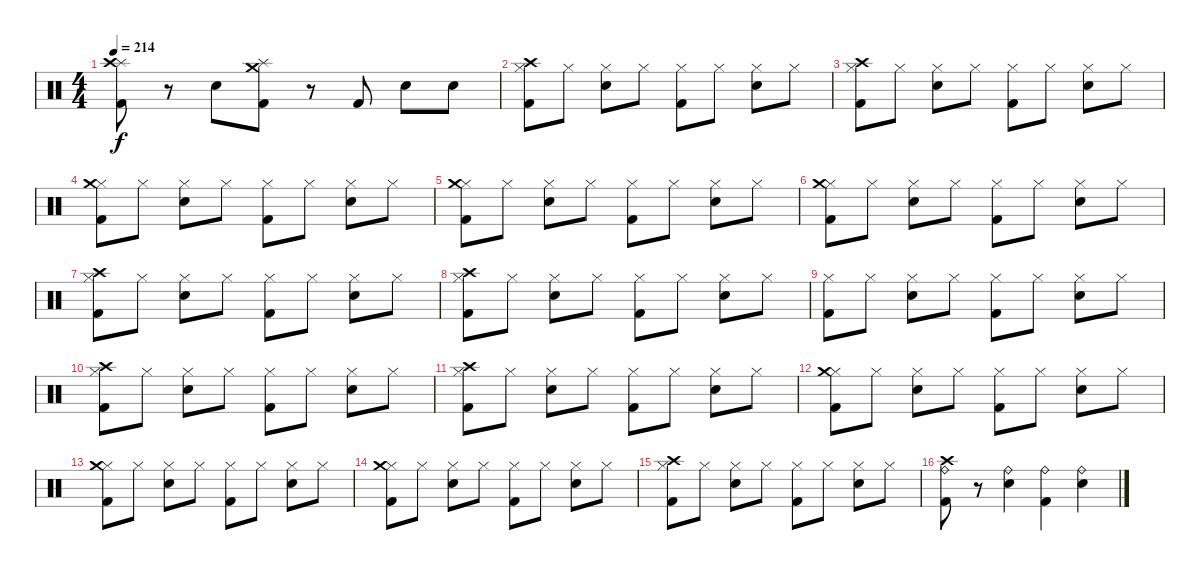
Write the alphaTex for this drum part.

\track "" {instrument percussion}
\staff {score}
\articulation defaults
\ts (4 4)
\tempo 214
\clef neutral
\ks c
("Splash (hit)" "Crash high (hit)" "Kick (hit) 2").8{dy f} r.8 "Electric Snare (hit)".8 ("Splash (hit)" "Crash medium (hit)" "Kick (hit) 2").8 r.8 "Kick (hit) 2".8 "Electric Snare (hit)".8 "Electric Snare (hit)".8 |
("Hi-Hat (closed)" "Crash high (hit)" "Kick (hit) 2").8 "Hi-Hat (closed)".8 ("Hi-Hat (closed)" "Electric Snare (hit)").8 "Hi-Hat (closed)".8 ("Hi-Hat (closed)" "Kick (hit) 2").8 "Hi-Hat (closed)".8 ("Hi-Hat (closed)" "Electric Snare (hit)").8 "Hi-Hat (closed)".8 |
("Hi-Hat (closed)" "Crash high (hit)" "Kick (hit) 2").8 "Hi-Hat (closed)".8 ("Hi-Hat (closed)" "Electric Snare (hit)").8 "Hi-Hat (closed)".8 ("Hi-Hat (closed)" "Kick (hit) 2").8 "Hi-Hat (closed)".8 ("Hi-Hat (closed)" "Electric Snare (hit)").8 "Hi-Hat (closed)".8 |
("Hi-Hat (closed)" "Crash medium (hit)" "Kick (hit) 2").8 "Hi-Hat (closed)".8 ("Hi-Hat (closed)" "Electric Snare (hit)").8 "Hi-Hat (closed)".8 ("Hi-Hat (closed)" "Kick (hit) 2").8 "Hi-Hat (closed)".8 ("Hi-Hat (closed)" "Electric Snare (hit)").8 "Hi-Hat (closed)".8 |
("Hi-Hat (closed)" "Crash medium (hit)" "Kick (hit) 2").8 "Hi-Hat (closed)".8 ("Hi-Hat (closed)" "Electric Snare (hit)").8 "Hi-Hat (closed)".8 ("Hi-Hat (closed)" "Kick (hit) 2").8 "Hi-Hat (closed)".8 ("Hi-Hat (closed)" "Electric Snare (hit)").8 "Hi-Hat (closed)".8 |
("Hi-Hat (closed)" "Kick (hit) 2" "Crash medium (hit)").8 "Hi-Hat (closed)".8 ("Hi-Hat (closed)" "Electric Snare (hit)").8 "Hi-Hat (closed)".8 ("Hi-Hat (closed)" "Kick (hit) 2").8 "Hi-Hat (closed)".8 ("Hi-Hat (closed)" "Electric Snare (hit)").8 "Hi-Hat (closed)".8 |
("Hi-Hat (closed)" "Kick (hit) 2" "Crash high (hit)").8 "Hi-Hat (closed)".8 ("Hi-Hat (closed)" "Electric Snare (hit)").8 "Hi-Hat (closed)".8 ("Hi-Hat (closed)" "Kick (hit) 2").8 "Hi-Hat (closed)".8 ("Hi-Hat (closed)" "Electric Snare (hit)").8 "Hi-Hat (closed)".8 |
("Hi-Hat (closed)" "Kick (hit) 2" "Crash high (hit)").8 "Hi-Hat (closed)".8 ("Hi-Hat (closed)" "Electric Snare (hit)").8 "Hi-Hat (closed)".8 ("Hi-Hat (closed)" "Kick (hit) 2").8 "Hi-Hat (closed)".8 ("Hi-Hat (closed)" "Electric Snare (hit)").8 "Hi-Hat (closed)".8 |
("Hi-Hat (closed)" "Kick (hit) 2").8 "Hi-Hat (closed)".8 ("Hi-Hat (closed)" "Electric Snare (hit)").8 "Hi-Hat (closed)".8 ("Hi-Hat (closed)" "Kick (hit) 2").8 "Hi-Hat (closed)".8 ("Hi-Hat (closed)" "Electric Snare (hit)").8 "Hi-Hat (closed)".8 |
("Hi-Hat (closed)" "Crash high (hit)" "Kick (hit) 2").8 "Hi-Hat (closed)".8 ("Hi-Hat (closed)" "Electric Snare (hit)").8 "Hi-Hat (closed)".8 ("Hi-Hat (closed)" "Kick (hit) 2").8 "Hi-Hat (closed)".8 ("Hi-Hat (closed)" "Electric Snare (hit)").8 "Hi-Hat (closed)".8 |
("Hi-Hat (closed)" "Crash high (hit)" "Kick (hit) 2").8 "Hi-Hat (closed)".8 ("Hi-Hat (closed)" "Electric Snare (hit)").8 "Hi-Hat (closed)".8 ("Hi-Hat (closed)" "Kick (hit) 2").8 "Hi-Hat (closed)".8 ("Hi-Hat (closed)" "Electric Snare (hit)").8 "Hi-Hat (closed)".8 |
("Hi-Hat (closed)" "Crash medium (hit)" "Kick (hit) 2").8 "Hi-Hat (closed)".8 ("Hi-Hat (closed)" "Electric Snare (hit)").8 "Hi-Hat (closed)".8 ("Hi-Hat (closed)" "Kick (hit) 2").8 "Hi-Hat (closed)".8 ("Hi-Hat (closed)" "Electric Snare (hit)").8 "Hi-Hat (closed)".8 |
("Hi-Hat (closed)" "Crash medium (hit)" "Kick (hit) 2").8 "Hi-Hat (closed)".8 ("Hi-Hat (closed)" "Electric Snare (hit)").8 "Hi-Hat (closed)".8 ("Hi-Hat (closed)" "Kick (hit) 2").8 "Hi-Hat (closed)".8 ("Hi-Hat (closed)" "Electric Snare (hit)").8 "Hi-Hat (closed)".8 |
("Hi-Hat (closed)" "Kick (hit) 2" "Crash medium (hit)").8 "Hi-Hat (closed)".8 ("Hi-Hat (closed)" "Electric Snare (hit)").8 "Hi-Hat (closed)".8 ("Hi-Hat (closed)" "Kick (hit) 2").8 "Hi-Hat (closed)".8 ("Hi-Hat (closed)" "Electric Snare (hit)").8 "Hi-Hat (closed)".8 |
("Hi-Hat (closed)" "Kick (hit) 2" "Crash high (hit)").8 "Hi-Hat (closed)".8 ("Hi-Hat (closed)" "Electric Snare (hit)").8 "Hi-Hat (closed)".8 ("Hi-Hat (closed)" "Kick (hit) 2").8 "Hi-Hat (closed)".8 ("Hi-Hat (closed)" "Electric Snare (hit)").8 "Hi-Hat (closed)".8 |
("Crash high (hit)" "Kick (hit) 2" "Ride (bell)").8 r.8 ("Ride (bell)" "Electric Snare (hit)").4 ("Ride (bell)" "Kick (hit) 2").4 ("Ride (bell)" "Electric Snare (hit)").4
